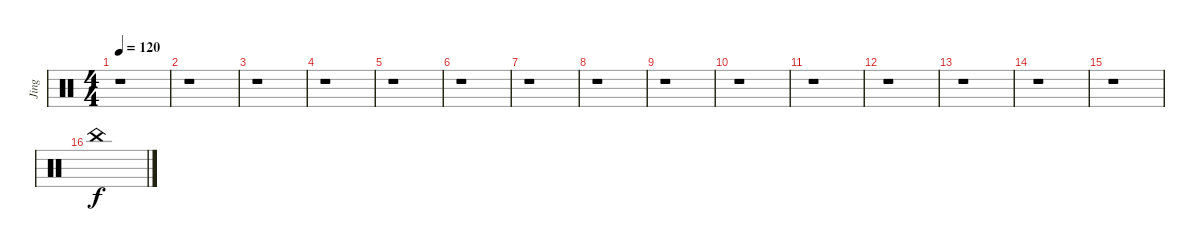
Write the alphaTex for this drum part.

\track ("Jing" "Jing") {instrument percussion}
\staff {score}
\articulation defaults
\ts (4 4)
\tempo 120
\clef neutral
\ks c
r.1{dy f} |
r.1 |
r.1 |
r.1 |
r.1 |
r.1 |
r.1 |
r.1 |
r.1 |
r.1 |
r.1 |
r.1 |
r.1 |
r.1 |
r.1 |
"China (hit)".1
